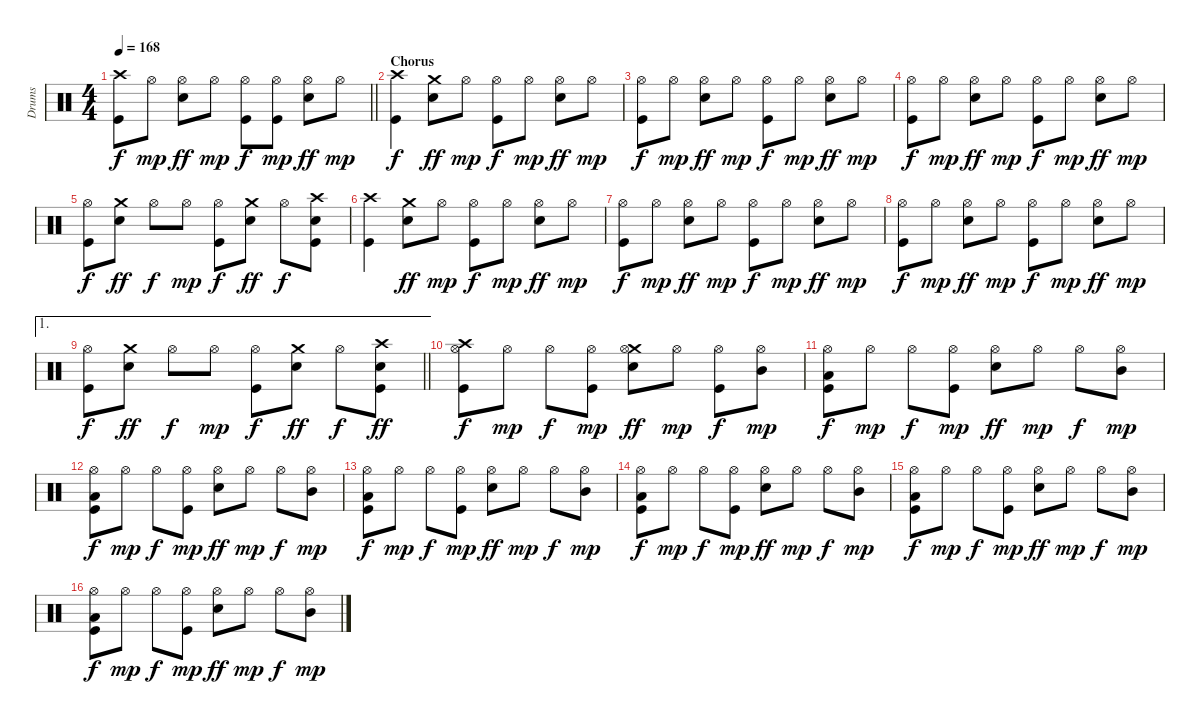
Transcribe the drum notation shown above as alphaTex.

\track ("Drums" "Drums") {instrument percussion}
\staff {score}
\articulation defaults
\ts (4 4)
\tempo 168
\clef neutral
\barLineRight lightlight
\ks c
("Crash high (hit)" "Kick (hit)").8{dy f} "Hi-Hat (open)".8{dy mp} ("Hi-Hat (open)" "Snare (hit) 2").8{dy ff} "Hi-Hat (open)".8{dy mp} ("Hi-Hat (open)" "Kick (hit)").8{dy f} ("Hi-Hat (open)" "Kick (hit)").8{dy mp} ("Hi-Hat (open)" "Snare (hit) 2").8{dy ff} "Hi-Hat (open)".8{dy mp} |
\section ("" "Chorus")
("Crash high (hit)" "Kick (hit)").4{dy f} ("Crash medium (hit)" "Snare (hit) 2").8{dy ff} "Hi-Hat (open)".8{dy mp} ("Hi-Hat (open)" "Kick (hit)").8{dy f} "Hi-Hat (open)".8{dy mp} ("Hi-Hat (open)" "Snare (hit) 2").8{dy ff} "Hi-Hat (open)".8{dy mp} |
("Hi-Hat (open)" "Kick (hit)").8{dy f} "Hi-Hat (open)".8{dy mp} ("Hi-Hat (open)" "Snare (hit) 2").8{dy ff} "Hi-Hat (open)".8{dy mp} ("Hi-Hat (open)" "Kick (hit)").8{dy f} "Hi-Hat (open)".8{dy mp} ("Hi-Hat (open)" "Snare (hit) 2").8{dy ff} "Hi-Hat (open)".8{dy mp} |
("Hi-Hat (open)" "Kick (hit)").8{dy f} "Hi-Hat (open)".8{dy mp} ("Hi-Hat (open)" "Snare (hit) 2").8{dy ff} "Hi-Hat (open)".8{dy mp} ("Hi-Hat (open)" "Kick (hit)").8{dy f} "Hi-Hat (open)".8{dy mp} ("Hi-Hat (open)" "Snare (hit) 2").8{dy ff} "Hi-Hat (open)".8{dy mp} |
("Hi-Hat (open)" "Kick (hit)").8{dy f} ("Crash medium (hit)" "Snare (hit) 2").8{dy ff} "Hi-Hat (open)".8{dy f} "Hi-Hat (open)".8{dy mp} ("Hi-Hat (open)" "Kick (hit)").8{dy f} ("Crash medium (hit)" "Snare (hit) 2").8{dy ff} "Hi-Hat (open)".8{dy f} ("Crash high (hit)" "Snare (hit) 2" "Kick (hit)").8 |
("Crash high (hit)" "Kick (hit)").4 ("Crash medium (hit)" "Snare (hit) 2").8{dy ff} "Hi-Hat (open)".8{dy mp} ("Hi-Hat (open)" "Kick (hit)").8{dy f} "Hi-Hat (open)".8{dy mp} ("Hi-Hat (open)" "Snare (hit) 2").8{dy ff} "Hi-Hat (open)".8{dy mp} |
("Hi-Hat (open)" "Kick (hit)").8{dy f} "Hi-Hat (open)".8{dy mp} ("Hi-Hat (open)" "Snare (hit) 2").8{dy ff} "Hi-Hat (open)".8{dy mp} ("Hi-Hat (open)" "Kick (hit)").8{dy f} "Hi-Hat (open)".8{dy mp} ("Hi-Hat (open)" "Snare (hit) 2").8{dy ff} "Hi-Hat (open)".8{dy mp} |
("Hi-Hat (open)" "Kick (hit)").8{dy f} "Hi-Hat (open)".8{dy mp} ("Hi-Hat (open)" "Snare (hit) 2").8{dy ff} "Hi-Hat (open)".8{dy mp} ("Hi-Hat (open)" "Kick (hit)").8{dy f} "Hi-Hat (open)".8{dy mp} ("Hi-Hat (open)" "Snare (hit) 2").8{dy ff} "Hi-Hat (open)".8{dy mp} |
\ae 1
\barLineRight lightlight
("Hi-Hat (open)" "Kick (hit)").8{dy f} ("Crash medium (hit)" "Snare (hit) 2").8{dy ff} "Hi-Hat (open)".8{dy f} "Hi-Hat (open)".8{dy mp} ("Hi-Hat (open)" "Kick (hit)").8{dy f} ("Crash medium (hit)" "Snare (hit) 2").8{dy ff} "Hi-Hat (open)".8{dy f} ("Crash high (hit)" "Snare (hit) 2" "Kick (hit)").8{dy ff} |
("Crash high (hit)" "Hi-Hat (open)" "Kick (hit)").8{dy f} "Hi-Hat (open)".8{dy mp} "Hi-Hat (open)".8{dy f} ("Hi-Hat (open)" "Kick (hit)").8{dy mp} ("Crash medium (hit)" "Hi-Hat (open)" "Snare (hit) 2").8{dy ff} "Hi-Hat (open)".8{dy mp} ("Hi-Hat (open)" "Kick (hit)").8{dy f} ("Mid Tom (hit)" "Hi-Hat (open)").8{dy mp} |
("Low Tom (hit)" "Hi-Hat (open)" "Kick (hit)").8{dy f} "Hi-Hat (open)".8{dy mp} "Hi-Hat (open)".8{dy f} ("Hi-Hat (open)" "Kick (hit)").8{dy mp} ("Hi-Hat (open)" "Snare (hit) 2").8{dy ff} "Hi-Hat (open)".8{dy mp} "Hi-Hat (open)".8{dy f} ("Mid Tom (hit)" "Hi-Hat (open)").8{dy mp} |
("Low Tom (hit)" "Hi-Hat (open)" "Kick (hit)").8{dy f} "Hi-Hat (open)".8{dy mp} "Hi-Hat (open)".8{dy f} ("Hi-Hat (open)" "Kick (hit)").8{dy mp} ("Hi-Hat (open)" "Snare (hit) 2").8{dy ff} "Hi-Hat (open)".8{dy mp} "Hi-Hat (open)".8{dy f} ("Mid Tom (hit)" "Hi-Hat (open)").8{dy mp} |
("Low Tom (hit)" "Hi-Hat (open)" "Kick (hit)").8{dy f} "Hi-Hat (open)".8{dy mp} "Hi-Hat (open)".8{dy f} ("Hi-Hat (open)" "Kick (hit)").8{dy mp} ("Hi-Hat (open)" "Snare (hit) 2").8{dy ff} "Hi-Hat (open)".8{dy mp} "Hi-Hat (open)".8{dy f} ("Mid Tom (hit)" "Hi-Hat (open)").8{dy mp} |
("Low Tom (hit)" "Hi-Hat (open)" "Kick (hit)").8{dy f} "Hi-Hat (open)".8{dy mp} "Hi-Hat (open)".8{dy f} ("Hi-Hat (open)" "Kick (hit)").8{dy mp} ("Hi-Hat (open)" "Snare (hit) 2").8{dy ff} "Hi-Hat (open)".8{dy mp} "Hi-Hat (open)".8{dy f} ("Mid Tom (hit)" "Hi-Hat (open)").8{dy mp} |
("Low Tom (hit)" "Hi-Hat (open)" "Kick (hit)").8{dy f} "Hi-Hat (open)".8{dy mp} "Hi-Hat (open)".8{dy f} ("Hi-Hat (open)" "Kick (hit)").8{dy mp} ("Hi-Hat (open)" "Snare (hit) 2").8{dy ff} "Hi-Hat (open)".8{dy mp} "Hi-Hat (open)".8{dy f} ("Mid Tom (hit)" "Hi-Hat (open)").8{dy mp} |
("Low Tom (hit)" "Hi-Hat (open)" "Kick (hit)").8{dy f} "Hi-Hat (open)".8{dy mp} "Hi-Hat (open)".8{dy f} ("Hi-Hat (open)" "Kick (hit)").8{dy mp} ("Hi-Hat (open)" "Snare (hit) 2").8{dy ff} "Hi-Hat (open)".8{dy mp} "Hi-Hat (open)".8{dy f} ("Mid Tom (hit)" "Hi-Hat (open)").8{dy mp}
